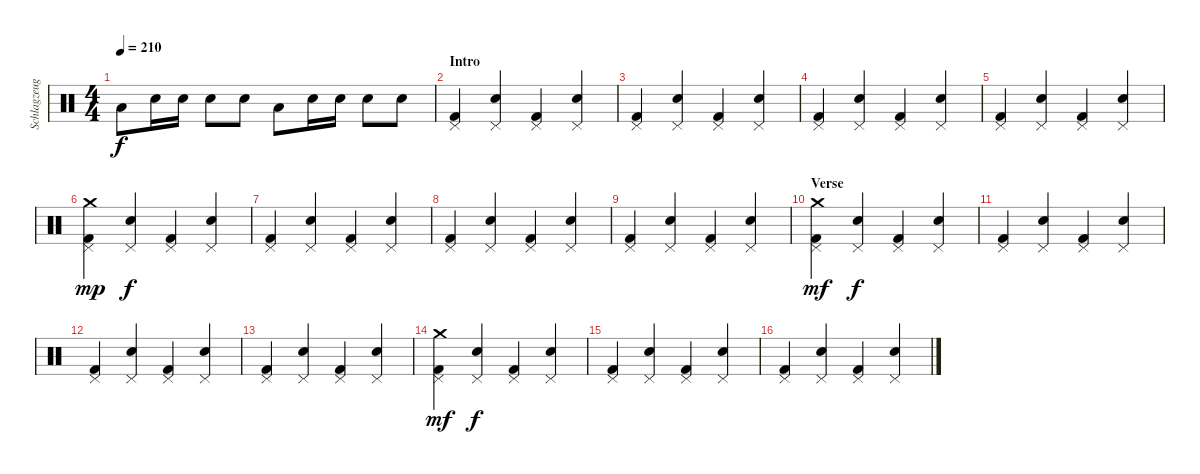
\track ("Schlagzeug" "Schlagzeug") {instrument percussion}
\staff {score}
\articulation defaults
\ts (4 4)
\section ("" "")
\tempo 210
\clef neutral
\ks c "Low Floor Tom (hit)".8{dy f} "Electric Snare (hit)".16 "Electric Snare (hit)".16 "Electric Snare (hit)".8 "Electric Snare (hit)".8 "Low Floor Tom (hit)".8 "Electric Snare (hit)".16 "Electric Snare (hit)".16 "Electric Snare (hit)".8 "Electric Snare (hit)".8
|
\section ("" "Intro")
("Pedal Hi-Hat (hit)" "Kick (hit) 2").4 ("Pedal Hi-Hat (hit)" "Electric Snare (hit)").4 ("Pedal Hi-Hat (hit)" "Kick (hit) 2").4 ("Pedal Hi-Hat (hit)" "Electric Snare (hit)").4 |
("Pedal Hi-Hat (hit)" "Kick (hit) 2").4 ("Pedal Hi-Hat (hit)" "Electric Snare (hit)").4 ("Pedal Hi-Hat (hit)" "Kick (hit) 2").4 ("Pedal Hi-Hat (hit)" "Electric Snare (hit)").4 |
("Pedal Hi-Hat (hit)" "Kick (hit) 2").4 ("Pedal Hi-Hat (hit)" "Electric Snare (hit)").4 ("Pedal Hi-Hat (hit)" "Kick (hit) 2").4 ("Pedal Hi-Hat (hit)" "Electric Snare (hit)").4 |
("Pedal Hi-Hat (hit)" "Kick (hit) 2").4 ("Pedal Hi-Hat (hit)" "Electric Snare (hit)").4 ("Pedal Hi-Hat (hit)" "Kick (hit) 2").4 ("Pedal Hi-Hat (hit)" "Electric Snare (hit)").4 |
("Pedal Hi-Hat (hit)" "Crash medium (hit)" "Kick (hit) 2").4{dy mp} ("Pedal Hi-Hat (hit)" "Electric Snare (hit)").4{dy f} ("Pedal Hi-Hat (hit)" "Kick (hit) 2").4 ("Pedal Hi-Hat (hit)" "Electric Snare (hit)").4 |
("Pedal Hi-Hat (hit)" "Kick (hit) 2").4 ("Pedal Hi-Hat (hit)" "Electric Snare (hit)").4 ("Pedal Hi-Hat (hit)" "Kick (hit) 2").4 ("Pedal Hi-Hat (hit)" "Electric Snare (hit)").4 |
("Pedal Hi-Hat (hit)" "Kick (hit) 2").4 ("Pedal Hi-Hat (hit)" "Electric Snare (hit)").4 ("Pedal Hi-Hat (hit)" "Kick (hit) 2").4 ("Pedal Hi-Hat (hit)" "Electric Snare (hit)").4 |
("Pedal Hi-Hat (hit)" "Kick (hit) 2").4 ("Pedal Hi-Hat (hit)" "Electric Snare (hit)").4 ("Pedal Hi-Hat (hit)" "Kick (hit) 2").4 ("Pedal Hi-Hat (hit)" "Electric Snare (hit)").4 |
\section ("" "Verse")
("Pedal Hi-Hat (hit)" "Crash medium (hit)" "Kick (hit) 2").4{dy mf} ("Pedal Hi-Hat (hit)" "Electric Snare (hit)").4{dy f} ("Pedal Hi-Hat (hit)" "Kick (hit) 2").4 ("Pedal Hi-Hat (hit)" "Electric Snare (hit)").4 |
("Pedal Hi-Hat (hit)" "Kick (hit) 2").4 ("Pedal Hi-Hat (hit)" "Electric Snare (hit)").4 ("Pedal Hi-Hat (hit)" "Kick (hit) 2").4 ("Pedal Hi-Hat (hit)" "Electric Snare (hit)").4 |
("Pedal Hi-Hat (hit)" "Kick (hit) 2").4 ("Pedal Hi-Hat (hit)" "Electric Snare (hit)").4 ("Pedal Hi-Hat (hit)" "Kick (hit) 2").4 ("Pedal Hi-Hat (hit)" "Electric Snare (hit)").4 |
("Pedal Hi-Hat (hit)" "Kick (hit) 2").4 ("Pedal Hi-Hat (hit)" "Electric Snare (hit)").4 ("Pedal Hi-Hat (hit)" "Kick (hit) 2").4 ("Pedal Hi-Hat (hit)" "Electric Snare (hit)").4 |
("Pedal Hi-Hat (hit)" "Crash medium (hit)" "Kick (hit) 2").4{dy mf} ("Pedal Hi-Hat (hit)" "Electric Snare (hit)").4{dy f} ("Pedal Hi-Hat (hit)" "Kick (hit) 2").4 ("Pedal Hi-Hat (hit)" "Electric Snare (hit)").4 |
("Pedal Hi-Hat (hit)" "Kick (hit) 2").4 ("Pedal Hi-Hat (hit)" "Electric Snare (hit)").4 ("Pedal Hi-Hat (hit)" "Kick (hit) 2").4 ("Pedal Hi-Hat (hit)" "Electric Snare (hit)").4 |
("Pedal Hi-Hat (hit)" "Kick (hit) 2").4 ("Pedal Hi-Hat (hit)" "Electric Snare (hit)").4 ("Pedal Hi-Hat (hit)" "Kick (hit) 2").4 ("Pedal Hi-Hat (hit)" "Electric Snare (hit)").4
